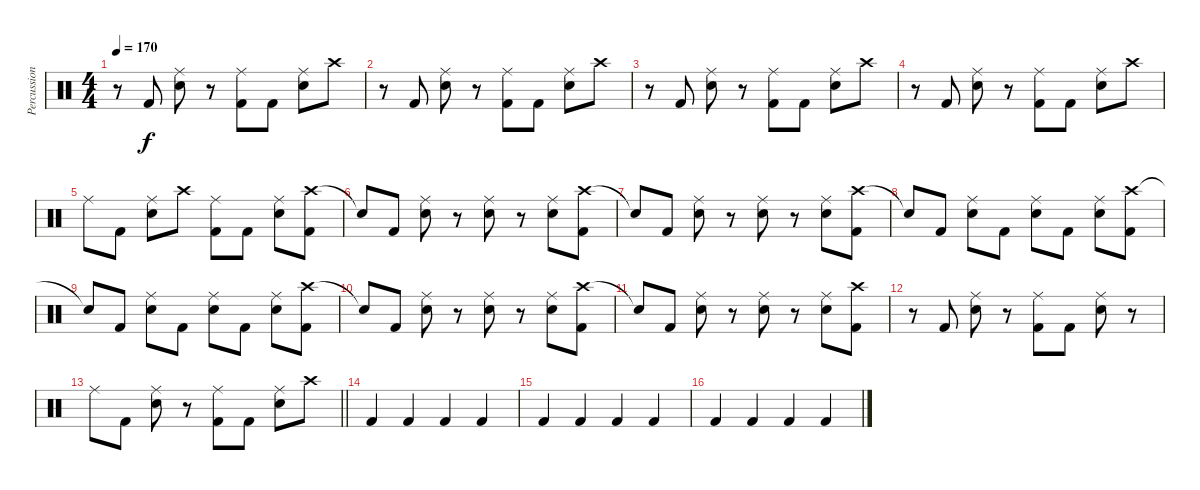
\track ("Percussion" "Percussion") {instrument percussion}
\staff {score}
\articulation defaults
\ts (4 4)
\tempo 170
\clef neutral
\ks c
r.8{dy f} "Kick (hit) 2".8 ("Ride (middle)" "Electric Snare (hit)").8 r.8 ("Ride (middle)" "Kick (hit) 2").8 "Kick (hit) 2".8 ("Ride (middle)" "Electric Snare (hit)").8 "Crash high (hit)".8 |
r.8 "Kick (hit) 2".8 ("Ride (middle)" "Electric Snare (hit)").8 r.8 ("Ride (middle)" "Kick (hit) 2").8 "Kick (hit) 2".8 ("Ride (middle)" "Electric Snare (hit)").8 "Crash high (hit)".8 |
r.8 "Kick (hit) 2".8 ("Ride (middle)" "Electric Snare (hit)").8 r.8 ("Ride (middle)" "Kick (hit) 2").8 "Kick (hit) 2".8 ("Ride (middle)" "Electric Snare (hit)").8 "Crash high (hit)".8 |
r.8 "Kick (hit) 2".8 ("Ride (middle)" "Electric Snare (hit)").8 r.8 ("Ride (middle)" "Kick (hit) 2").8 "Kick (hit) 2".8 ("Ride (middle)" "Electric Snare (hit)").8 "Crash high (hit)".8 |
"Ride (middle)".8 "Kick (hit) 2".8 ("Ride (middle)" "Electric Snare (hit)").8 "Crash high (hit)".8 ("Ride (middle)" "Kick (hit) 2").8 "Kick (hit) 2".8 ("Ride (middle)" "Electric Snare (hit)").8 ("Crash high (hit)" "Kick (hit) 2").8 |
"Snare (hit)"{t}.8 "Kick (hit) 2".8 ("Ride (middle)" "Electric Snare (hit)").8 r.8 ("Ride (middle)" "Electric Snare (hit)").8 r.8 ("Ride (middle)" "Electric Snare (hit)").8 ("Crash high (hit)" "Kick (hit) 2").8 |
"Snare (hit)"{t}.8 "Kick (hit) 2".8 ("Ride (middle)" "Electric Snare (hit)").8 r.8 ("Ride (middle)" "Electric Snare (hit)").8 r.8 ("Ride (middle)" "Electric Snare (hit)").8 ("Crash high (hit)" "Kick (hit) 2").8 |
"Snare (hit)"{t}.8 "Kick (hit) 2".8 ("Ride (middle)" "Electric Snare (hit)").8 "Kick (hit) 2".8 ("Ride (middle)" "Electric Snare (hit)").8 "Kick (hit) 2".8 ("Ride (middle)" "Electric Snare (hit)").8 ("Crash high (hit)" "Kick (hit) 2").8 |
"Snare (hit)"{t}.8 "Kick (hit) 2".8 ("Ride (middle)" "Electric Snare (hit)").8 "Kick (hit) 2".8 ("Ride (middle)" "Electric Snare (hit)").8 "Kick (hit) 2".8 ("Ride (middle)" "Electric Snare (hit)").8 ("Crash high (hit)" "Kick (hit) 2").8 |
"Snare (hit)"{t}.8 "Kick (hit) 2".8 ("Ride (middle)" "Electric Snare (hit)").8 r.8 ("Ride (middle)" "Electric Snare (hit)").8 r.8 ("Ride (middle)" "Electric Snare (hit)").8 ("Crash high (hit)" "Kick (hit) 2").8 |
"Snare (hit)"{t}.8 "Kick (hit) 2".8 ("Ride (middle)" "Electric Snare (hit)").8 r.8 ("Ride (middle)" "Electric Snare (hit)").8 r.8 ("Ride (middle)" "Electric Snare (hit)").8 ("Crash high (hit)" "Kick (hit) 2").8 |
r.8 "Kick (hit) 2".8 ("Ride (middle)" "Electric Snare (hit)").8 r.8 ("Ride (middle)" "Kick (hit) 2").8 "Kick (hit) 2".8 ("Ride (middle)" "Electric Snare (hit)").8 r.8 |
\barLineRight lightlight "Ride (middle)".8 "Kick (hit) 2".8
("Ride (middle)" "Electric Snare (hit)").8 r.8 ("Ride (middle)" "Kick (hit) 2").8 "Kick (hit) 2".8 ("Ride (middle)" "Electric Snare (hit)").8 "Crash high (hit)".8 |
"Kick (hit) 2".4 "Kick (hit) 2".4 "Kick (hit) 2".4 "Kick (hit) 2".4 |
"Kick (hit) 2".4 "Kick (hit) 2".4 "Kick (hit) 2".4 "Kick (hit) 2".4 |
"Kick (hit) 2".4 "Kick (hit) 2".4 "Kick (hit) 2".4 "Kick (hit) 2".4
